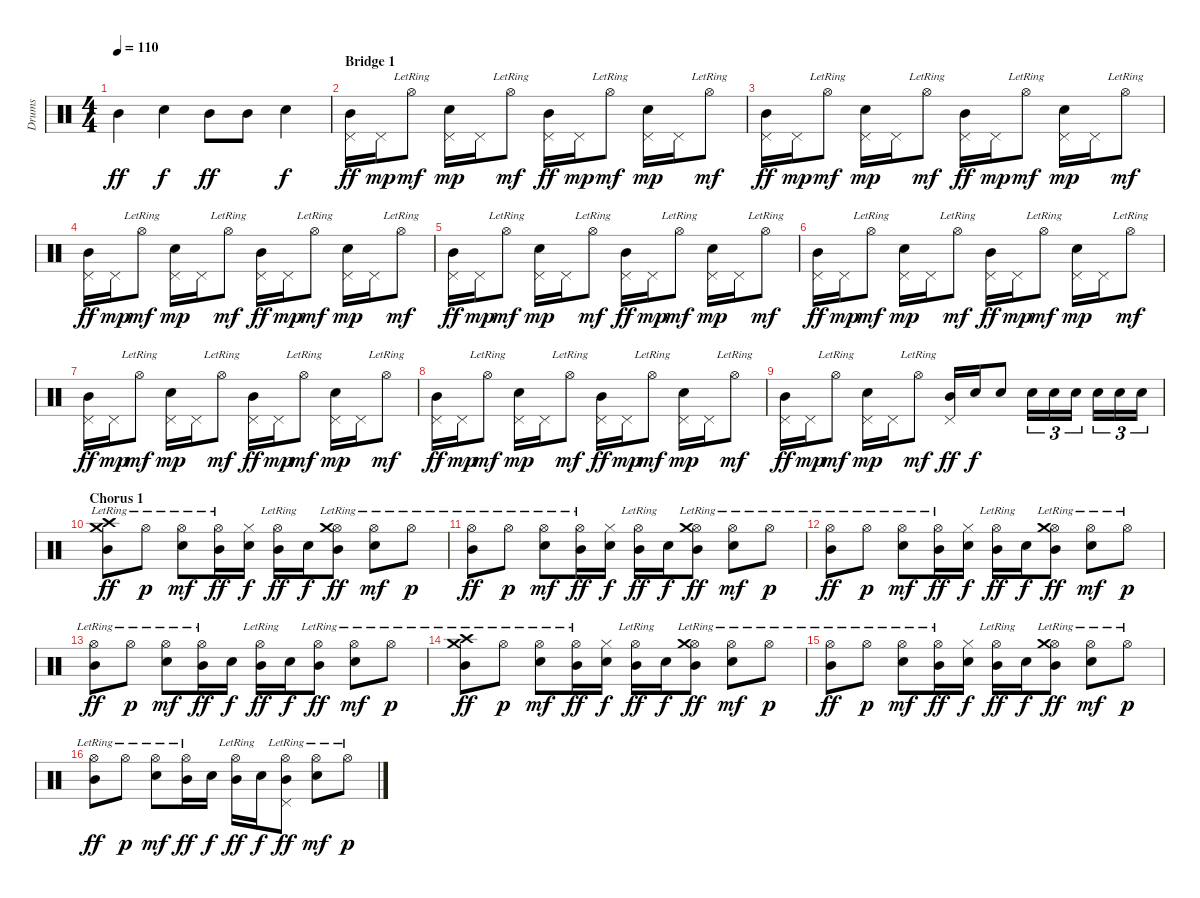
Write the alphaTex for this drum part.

\track ("Drums" "Drums") {instrument percussion}
\staff {score}
\articulation defaults
\ts (4 4)
\tempo 110
\clef neutral
\ks c "Mid Tom (hit)".4{dy ff} "Electric Snare (hit)".4{dy f} "Mid Tom (hit)".8{dy ff} "Mid Tom (hit)".8 "Electric Snare (hit)".4{dy f}
|
\section ("" "Bridge 1")
("Pedal Hi-Hat (hit)" "Mid Tom (hit)").16{dy ff} "Pedal Hi-Hat (hit)".16{dy mp} "Hi-Hat (open)"{lr}.8{dy mf} ("Pedal Hi-Hat (hit)" "Electric Snare (hit)").16{dy mp} "Pedal Hi-Hat (hit)".16 "Hi-Hat (open)"{lr}.8{dy mf} ("Pedal Hi-Hat (hit)" "Mid Tom (hit)").16{dy ff} "Pedal Hi-Hat (hit)".16{dy mp} "Hi-Hat (open)"{lr}.8{dy mf} ("Pedal Hi-Hat (hit)" "Electric Snare (hit)").16{dy mp} "Pedal Hi-Hat (hit)".16 "Hi-Hat (open)"{lr}.8{dy mf} |
("Pedal Hi-Hat (hit)" "Mid Tom (hit)").16{dy ff} "Pedal Hi-Hat (hit)".16{dy mp} "Hi-Hat (open)"{lr}.8{dy mf} ("Pedal Hi-Hat (hit)" "Electric Snare (hit)").16{dy mp} "Pedal Hi-Hat (hit)".16 "Hi-Hat (open)"{lr}.8{dy mf} ("Pedal Hi-Hat (hit)" "Mid Tom (hit)").16{dy ff} "Pedal Hi-Hat (hit)".16{dy mp} "Hi-Hat (open)"{lr}.8{dy mf} ("Pedal Hi-Hat (hit)" "Electric Snare (hit)").16{dy mp} "Pedal Hi-Hat (hit)".16 "Hi-Hat (open)"{lr}.8{dy mf} |
("Pedal Hi-Hat (hit)" "Mid Tom (hit)").16{dy ff} "Pedal Hi-Hat (hit)".16{dy mp} "Hi-Hat (open)"{lr}.8{dy mf} ("Pedal Hi-Hat (hit)" "Electric Snare (hit)").16{dy mp} "Pedal Hi-Hat (hit)".16 "Hi-Hat (open)"{lr}.8{dy mf} ("Pedal Hi-Hat (hit)" "Mid Tom (hit)").16{dy ff} "Pedal Hi-Hat (hit)".16{dy mp} "Hi-Hat (open)"{lr}.8{dy mf} ("Pedal Hi-Hat (hit)" "Electric Snare (hit)").16{dy mp} "Pedal Hi-Hat (hit)".16 "Hi-Hat (open)"{lr}.8{dy mf} |
("Pedal Hi-Hat (hit)" "Mid Tom (hit)").16{dy ff} "Pedal Hi-Hat (hit)".16{dy mp} "Hi-Hat (open)"{lr}.8{dy mf} ("Pedal Hi-Hat (hit)" "Electric Snare (hit)").16{dy mp} "Pedal Hi-Hat (hit)".16 "Hi-Hat (open)"{lr}.8{dy mf} ("Pedal Hi-Hat (hit)" "Mid Tom (hit)").16{dy ff} "Pedal Hi-Hat (hit)".16{dy mp} "Hi-Hat (open)"{lr}.8{dy mf} ("Pedal Hi-Hat (hit)" "Electric Snare (hit)").16{dy mp} "Pedal Hi-Hat (hit)".16 "Hi-Hat (open)"{lr}.8{dy mf} |
("Pedal Hi-Hat (hit)" "Mid Tom (hit)").16{dy ff} "Pedal Hi-Hat (hit)".16{dy mp} "Hi-Hat (open)"{lr}.8{dy mf} ("Pedal Hi-Hat (hit)" "Electric Snare (hit)").16{dy mp} "Pedal Hi-Hat (hit)".16 "Hi-Hat (open)"{lr}.8{dy mf} ("Pedal Hi-Hat (hit)" "Mid Tom (hit)").16{dy ff} "Pedal Hi-Hat (hit)".16{dy mp} "Hi-Hat (open)"{lr}.8{dy mf} ("Pedal Hi-Hat (hit)" "Electric Snare (hit)").16{dy mp} "Pedal Hi-Hat (hit)".16 "Hi-Hat (open)"{lr}.8{dy mf} |
("Pedal Hi-Hat (hit)" "Mid Tom (hit)").16{dy ff} "Pedal Hi-Hat (hit)".16{dy mp} "Hi-Hat (open)"{lr}.8{dy mf} ("Pedal Hi-Hat (hit)" "Electric Snare (hit)").16{dy mp} "Pedal Hi-Hat (hit)".16 "Hi-Hat (open)"{lr}.8{dy mf} ("Pedal Hi-Hat (hit)" "Mid Tom (hit)").16{dy ff} "Pedal Hi-Hat (hit)".16{dy mp} "Hi-Hat (open)"{lr}.8{dy mf} ("Pedal Hi-Hat (hit)" "Electric Snare (hit)").16{dy mp} "Pedal Hi-Hat (hit)".16 "Hi-Hat (open)"{lr}.8{dy mf} |
("Pedal Hi-Hat (hit)" "Mid Tom (hit)").16{dy ff} "Pedal Hi-Hat (hit)".16{dy mp} "Hi-Hat (open)"{lr}.8{dy mf} ("Pedal Hi-Hat (hit)" "Electric Snare (hit)").16{dy mp} "Pedal Hi-Hat (hit)".16 "Hi-Hat (open)"{lr}.8{dy mf} ("Pedal Hi-Hat (hit)" "Mid Tom (hit)").16{dy ff} "Pedal Hi-Hat (hit)".16{dy mp} "Hi-Hat (open)"{lr}.8{dy mf} ("Pedal Hi-Hat (hit)" "Electric Snare (hit)").16{dy mp} "Pedal Hi-Hat (hit)".16 "Hi-Hat (open)"{lr}.8{dy mf} |
("Pedal Hi-Hat (hit)" "Mid Tom (hit)").16{dy ff} "Pedal Hi-Hat (hit)".16{dy mp} "Hi-Hat (open)"{lr}.8{dy mf} ("Pedal Hi-Hat (hit)" "Electric Snare (hit)").16{dy mp} "Pedal Hi-Hat (hit)".16 "Hi-Hat (open)"{lr}.8{dy mf} ("Pedal Hi-Hat (hit)" "Mid Tom (hit)").16{dy ff} "Electric Snare (hit)".16{dy f} "Electric Snare (hit)".8 "Electric Snare (hit)".16{tu (3 2)} "Electric Snare (hit)".16{tu (3 2)} "Electric Snare (hit)".16{tu (3 2)} "Electric Snare (hit)".16{tu (3 2)} "Electric Snare (hit)".16{tu (3 2)} "Electric Snare (hit)".16{tu (3 2)} |
\section ("" "Chorus 1")
("Crash medium (hit)"{lr} "Crash high (hit)"{lr} "Mid Tom (hit)").8{dy ff} "Hi-Hat (open)"{lr}.8{dy p} ("Hi-Hat (open)"{lr} "Electric Snare (hit)").8{dy mf} ("Hi-Hat (open)"{lr} "Mid Tom (hit)").16{dy ff} ("Hi-Hat (closed)" "Electric Snare (hit)").16{dy f} ("Hi-Hat (open)"{lr} "Mid Tom (hit)").16{dy ff} "Electric Snare (hit)".16{dy f} ("Hi-Hat (open)"{lr} "Crash medium (hit)"{lr} "Mid Tom (hit)").8{dy ff} ("Hi-Hat (open)"{lr} "Electric Snare (hit)").8{dy mf} "Hi-Hat (open)"{lr}.8{dy p} |
("Hi-Hat (open)"{lr} "Mid Tom (hit)").8{dy ff} "Hi-Hat (open)"{lr}.8{dy p} ("Hi-Hat (open)"{lr} "Electric Snare (hit)").8{dy mf} ("Hi-Hat (open)"{lr} "Mid Tom (hit)").16{dy ff} ("Hi-Hat (closed)" "Electric Snare (hit)").16{dy f} ("Hi-Hat (open)"{lr} "Mid Tom (hit)").16{dy ff} "Electric Snare (hit)".16{dy f} ("Hi-Hat (open)"{lr} "Crash medium (hit)"{lr} "Mid Tom (hit)").8{dy ff} ("Hi-Hat (open)"{lr} "Electric Snare (hit)").8{dy mf} "Hi-Hat (open)"{lr}.8{dy p} |
("Hi-Hat (open)"{lr} "Mid Tom (hit)").8{dy ff} "Hi-Hat (open)"{lr}.8{dy p} ("Hi-Hat (open)"{lr} "Electric Snare (hit)").8{dy mf} ("Hi-Hat (open)"{lr} "Mid Tom (hit)").16{dy ff} ("Hi-Hat (closed)" "Electric Snare (hit)").16{dy f} ("Hi-Hat (open)"{lr} "Mid Tom (hit)").16{dy ff} "Electric Snare (hit)".16{dy f} ("Hi-Hat (open)"{lr} "Crash medium (hit)"{lr} "Mid Tom (hit)").8{dy ff} ("Hi-Hat (open)"{lr} "Electric Snare (hit)").8{dy mf} "Hi-Hat (open)"{lr}.8{dy p} |
("Hi-Hat (open)"{lr} "Mid Tom (hit)").8{dy ff} "Hi-Hat (open)"{lr}.8{dy p} ("Hi-Hat (open)"{lr} "Electric Snare (hit)").8{dy mf} ("Hi-Hat (open)"{lr} "Mid Tom (hit)").16{dy ff} "Electric Snare (hit)".16{dy f} ("Hi-Hat (open)"{lr} "Mid Tom (hit)").16{dy ff} "Electric Snare (hit)".16{dy f} ("Hi-Hat (open)"{lr} "Mid Tom (hit)").8{dy ff} ("Hi-Hat (open)"{lr} "Electric Snare (hit)").8{dy mf} "Hi-Hat (open)"{lr}.8{dy p} |
("Crash medium (hit)"{lr} "Crash high (hit)"{lr} "Mid Tom (hit)").8{dy ff} "Hi-Hat (open)"{lr}.8{dy p} ("Hi-Hat (open)"{lr} "Electric Snare (hit)").8{dy mf} ("Hi-Hat (open)"{lr} "Mid Tom (hit)").16{dy ff} ("Hi-Hat (closed)" "Electric Snare (hit)").16{dy f} ("Hi-Hat (open)"{lr} "Mid Tom (hit)").16{dy ff} "Electric Snare (hit)".16{dy f} ("Hi-Hat (open)"{lr} "Crash medium (hit)"{lr} "Mid Tom (hit)").8{dy ff} ("Hi-Hat (open)"{lr} "Electric Snare (hit)").8{dy mf} "Hi-Hat (open)"{lr}.8{dy p} |
("Hi-Hat (open)"{lr} "Mid Tom (hit)").8{dy ff} "Hi-Hat (open)"{lr}.8{dy p} ("Hi-Hat (open)"{lr} "Electric Snare (hit)").8{dy mf} ("Hi-Hat (open)"{lr} "Mid Tom (hit)").16{dy ff} ("Hi-Hat (closed)" "Electric Snare (hit)").16{dy f} ("Hi-Hat (open)"{lr} "Mid Tom (hit)").16{dy ff} "Electric Snare (hit)".16{dy f} ("Hi-Hat (open)"{lr} "Crash medium (hit)"{lr} "Mid Tom (hit)").8{dy ff} ("Hi-Hat (open)"{lr} "Electric Snare (hit)").8{dy mf} "Hi-Hat (open)"{lr}.8{dy p} |
("Hi-Hat (open)"{lr} "Mid Tom (hit)").8{dy ff} "Hi-Hat (open)"{lr}.8{dy p} ("Hi-Hat (open)"{lr} "Electric Snare (hit)").8{dy mf} ("Hi-Hat (open)"{lr} "Mid Tom (hit)").16{dy ff} "Electric Snare (hit)".16{dy f} ("Hi-Hat (open)"{lr} "Mid Tom (hit)").16{dy ff} "Electric Snare (hit)".16{dy f} ("Hi-Hat (open)"{lr} "Pedal Hi-Hat (hit)" "Mid Tom (hit)").8{dy ff} ("Hi-Hat (open)"{lr} "Electric Snare (hit)").8{dy mf} "Hi-Hat (open)"{lr}.8{dy p}
